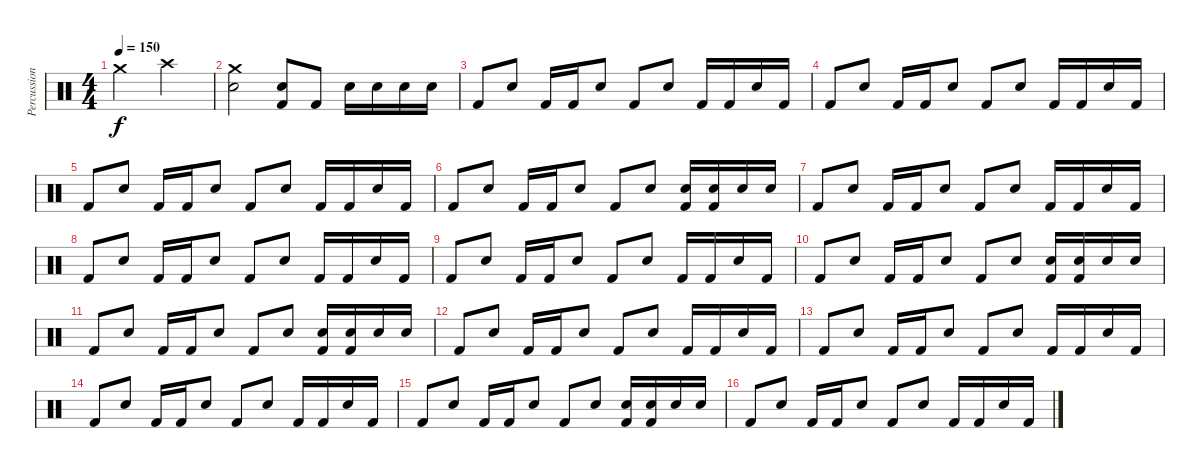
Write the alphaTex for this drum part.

\track ("Percussion" "Percussion") {instrument percussion}
\staff {score}
\articulation defaults
\ts (4 4)
\tempo 150
\clef neutral
\ks c "Crash medium (hit)".2{dy f} "Crash high (hit)".2
|
("Snare (hit) 2" "Crash medium (hit)").2 ("Kick (hit) 2" "Snare (hit) 2").8 "Kick (hit) 2".8 "Snare (hit) 2".16 "Snare (hit) 2".16 "Snare (hit) 2".16 "Snare (hit) 2".16 |
"Kick (hit) 2".8 "Snare (hit) 2".8 "Kick (hit) 2".16 "Kick (hit) 2".16 "Snare (hit) 2".8 "Kick (hit) 2".8 "Snare (hit) 2".8 "Kick (hit) 2".16 "Kick (hit) 2".16 "Snare (hit) 2".16 "Kick (hit) 2".16 |
"Kick (hit) 2".8 "Snare (hit) 2".8 "Kick (hit) 2".16 "Kick (hit) 2".16 "Snare (hit) 2".8 "Kick (hit) 2".8 "Snare (hit) 2".8 "Kick (hit) 2".16 "Kick (hit) 2".16 "Snare (hit) 2".16 "Kick (hit) 2".16 |
"Kick (hit) 2".8 "Snare (hit) 2".8 "Kick (hit) 2".16 "Kick (hit) 2".16 "Snare (hit) 2".8 "Kick (hit) 2".8 "Snare (hit) 2".8 "Kick (hit) 2".16 "Kick (hit) 2".16 "Snare (hit) 2".16 "Kick (hit) 2".16 |
"Kick (hit) 2".8 "Snare (hit) 2".8 "Kick (hit) 2".16 "Kick (hit) 2".16 "Snare (hit) 2".8 "Kick (hit) 2".8 "Snare (hit) 2".8 ("Kick (hit) 2" "Snare (hit) 2").16 ("Kick (hit) 2" "Snare (hit) 2").16 "Snare (hit) 2".16 "Snare (hit) 2".16 |
"Kick (hit) 2".8 "Snare (hit) 2".8 "Kick (hit) 2".16 "Kick (hit) 2".16 "Snare (hit) 2".8 "Kick (hit) 2".8 "Snare (hit) 2".8 "Kick (hit) 2".16 "Kick (hit) 2".16 "Snare (hit) 2".16 "Kick (hit) 2".16 |
"Kick (hit) 2".8 "Snare (hit) 2".8 "Kick (hit) 2".16 "Kick (hit) 2".16 "Snare (hit) 2".8 "Kick (hit) 2".8 "Snare (hit) 2".8 "Kick (hit) 2".16 "Kick (hit) 2".16 "Snare (hit) 2".16 "Kick (hit) 2".16 |
"Kick (hit) 2".8 "Snare (hit) 2".8 "Kick (hit) 2".16 "Kick (hit) 2".16 "Snare (hit) 2".8 "Kick (hit) 2".8 "Snare (hit) 2".8 "Kick (hit) 2".16 "Kick (hit) 2".16 "Snare (hit) 2".16 "Kick (hit) 2".16 |
"Kick (hit) 2".8 "Snare (hit) 2".8 "Kick (hit) 2".16 "Kick (hit) 2".16 "Snare (hit) 2".8 "Kick (hit) 2".8 "Snare (hit) 2".8 ("Kick (hit) 2" "Snare (hit) 2").16 ("Kick (hit) 2" "Snare (hit) 2").16 "Snare (hit) 2".16 "Snare (hit) 2".16 |
"Kick (hit) 2".8 "Snare (hit) 2".8 "Kick (hit) 2".16 "Kick (hit) 2".16 "Snare (hit) 2".8 "Kick (hit) 2".8 "Snare (hit) 2".8 ("Kick (hit) 2" "Snare (hit) 2").16 ("Kick (hit) 2" "Snare (hit) 2").16 "Snare (hit) 2".16 "Snare (hit) 2".16 |
"Kick (hit) 2".8 "Snare (hit) 2".8 "Kick (hit) 2".16 "Kick (hit) 2".16 "Snare (hit) 2".8 "Kick (hit) 2".8 "Snare (hit) 2".8 "Kick (hit) 2".16 "Kick (hit) 2".16 "Snare (hit) 2".16 "Kick (hit) 2".16 |
"Kick (hit) 2".8 "Snare (hit) 2".8 "Kick (hit) 2".16 "Kick (hit) 2".16 "Snare (hit) 2".8 "Kick (hit) 2".8 "Snare (hit) 2".8 "Kick (hit) 2".16 "Kick (hit) 2".16 "Snare (hit) 2".16 "Kick (hit) 2".16 |
"Kick (hit) 2".8 "Snare (hit) 2".8 "Kick (hit) 2".16 "Kick (hit) 2".16 "Snare (hit) 2".8 "Kick (hit) 2".8 "Snare (hit) 2".8 "Kick (hit) 2".16 "Kick (hit) 2".16 "Snare (hit) 2".16 "Kick (hit) 2".16 |
"Kick (hit) 2".8 "Snare (hit) 2".8 "Kick (hit) 2".16 "Kick (hit) 2".16 "Snare (hit) 2".8 "Kick (hit) 2".8 "Snare (hit) 2".8 ("Kick (hit) 2" "Snare (hit) 2").16 ("Kick (hit) 2" "Snare (hit) 2").16 "Snare (hit) 2".16 "Snare (hit) 2".16 |
"Kick (hit) 2".8 "Snare (hit) 2".8 "Kick (hit) 2".16 "Kick (hit) 2".16 "Snare (hit) 2".8 "Kick (hit) 2".8 "Snare (hit) 2".8 "Kick (hit) 2".16 "Kick (hit) 2".16 "Snare (hit) 2".16 "Kick (hit) 2".16
